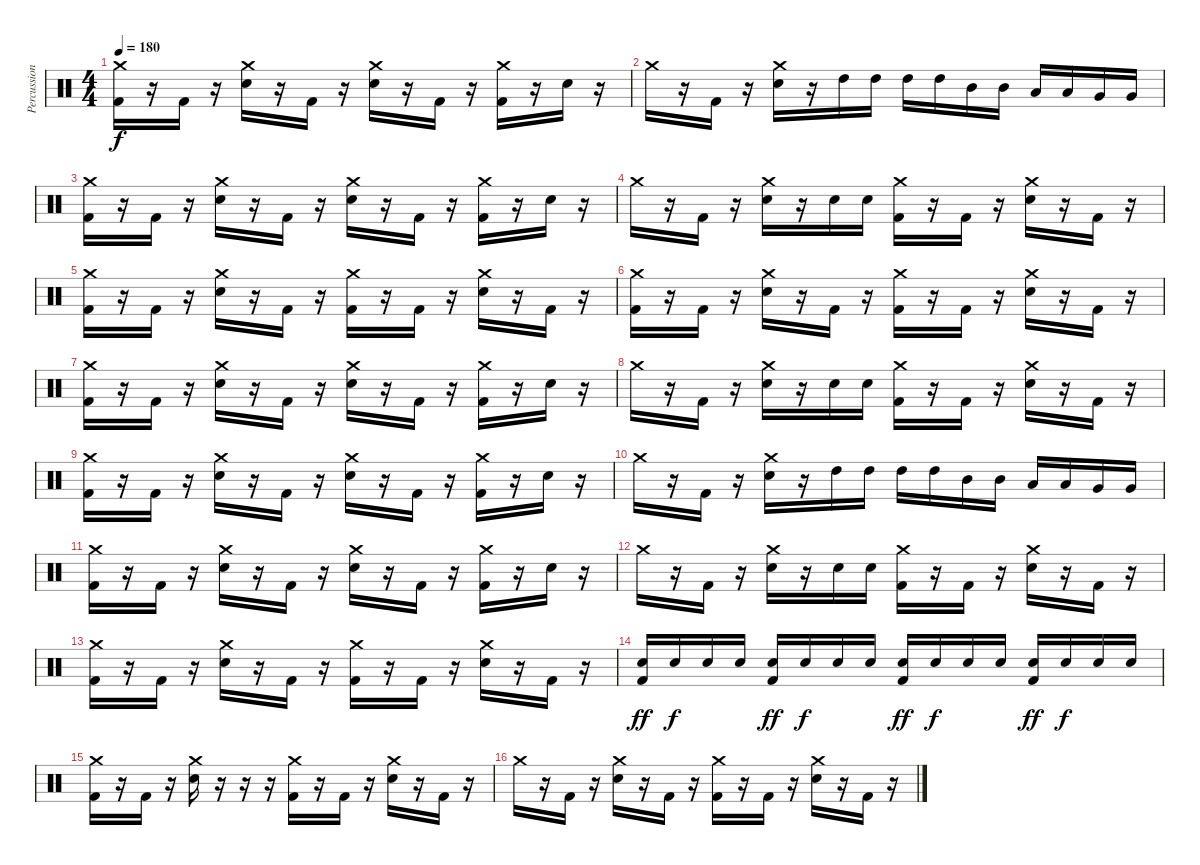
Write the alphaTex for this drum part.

\track ("Percussion" "Percussion") {instrument percussion}
\staff {score}
\articulation defaults
\ts (4 4)
\tempo 180
\clef neutral
\ks c
("Crash medium (hit)" "Kick (hit) 2").16{dy f} r.16 "Kick (hit) 2".16 r.16 ("Crash medium (hit)" "Snare (hit) 2").16 r.16 "Kick (hit) 2".16 r.16 ("Crash medium (hit)" "Snare (hit) 2").16 r.16 "Kick (hit) 2".16 r.16 ("Crash medium (hit)" "Kick (hit) 2").16 r.16 "Snare (hit) 2".16 r.16 |
"Crash medium (hit)".16 r.16 "Kick (hit) 2".16 r.16 ("Crash medium (hit)" "Snare (hit) 2").16 r.16 "High Tom (hit)".16 "High Tom (hit)".16 "High Tom (hit)".16 "High Tom (hit)".16 "Mid Tom (hit)".16 "Mid Tom (hit)".16 "Low Tom (hit)".16 "Low Tom (hit)".16 "Very Low Tom (hit)".16 "Very Low Tom (hit)".16 |
("Crash medium (hit)" "Kick (hit) 2").16 r.16 "Kick (hit) 2".16 r.16 ("Crash medium (hit)" "Snare (hit) 2").16 r.16 "Kick (hit) 2".16 r.16 ("Crash medium (hit)" "Snare (hit) 2").16 r.16 "Kick (hit) 2".16 r.16 ("Crash medium (hit)" "Kick (hit) 2").16 r.16 "Snare (hit) 2".16 r.16 |
"Crash medium (hit)".16 r.16 "Kick (hit) 2".16 r.16 ("Crash medium (hit)" "Snare (hit) 2").16 r.16 "Snare (hit) 2".16 "Snare (hit) 2".16 ("Crash medium (hit)" "Kick (hit) 2").16 r.16 "Kick (hit) 2".16 r.16 ("Crash medium (hit)" "Snare (hit) 2").16 r.16 "Kick (hit) 2".16 r.16 |
("Crash medium (hit)" "Kick (hit) 2").16 r.16 "Kick (hit) 2".16 r.16 ("Crash medium (hit)" "Snare (hit) 2").16 r.16 "Kick (hit) 2".16 r.16 ("Crash medium (hit)" "Kick (hit) 2").16 r.16 "Kick (hit) 2".16 r.16 ("Crash medium (hit)" "Snare (hit) 2").16 r.16 "Kick (hit) 2".16 r.16 |
("Crash medium (hit)" "Kick (hit) 2").16 r.16 "Kick (hit) 2".16 r.16 ("Crash medium (hit)" "Snare (hit) 2").16 r.16 "Kick (hit) 2".16 r.16 ("Crash medium (hit)" "Kick (hit) 2").16 r.16 "Kick (hit) 2".16 r.16 ("Crash medium (hit)" "Snare (hit) 2").16 r.16 "Kick (hit) 2".16 r.16 |
("Crash medium (hit)" "Kick (hit) 2").16 r.16 "Kick (hit) 2".16 r.16 ("Crash medium (hit)" "Snare (hit) 2").16 r.16 "Kick (hit) 2".16 r.16 ("Crash medium (hit)" "Snare (hit) 2").16 r.16 "Kick (hit) 2".16 r.16 ("Crash medium (hit)" "Kick (hit) 2").16 r.16 "Snare (hit) 2".16 r.16 |
"Crash medium (hit)".16 r.16 "Kick (hit) 2".16 r.16 ("Crash medium (hit)" "Snare (hit) 2").16 r.16 "Snare (hit) 2".16 "Snare (hit) 2".16 ("Crash medium (hit)" "Kick (hit) 2").16 r.16 "Kick (hit) 2".16 r.16 ("Crash medium (hit)" "Snare (hit) 2").16 r.16 "Kick (hit) 2".16 r.16 |
("Crash medium (hit)" "Kick (hit) 2").16 r.16 "Kick (hit) 2".16 r.16 ("Crash medium (hit)" "Snare (hit) 2").16 r.16 "Kick (hit) 2".16 r.16 ("Crash medium (hit)" "Snare (hit) 2").16 r.16 "Kick (hit) 2".16 r.16 ("Crash medium (hit)" "Kick (hit) 2").16 r.16 "Snare (hit) 2".16 r.16 |
"Crash medium (hit)".16 r.16 "Kick (hit) 2".16 r.16 ("Crash medium (hit)" "Snare (hit) 2").16 r.16 "High Tom (hit)".16 "High Tom (hit)".16 "High Tom (hit)".16 "High Tom (hit)".16 "Mid Tom (hit)".16 "Mid Tom (hit)".16 "Low Tom (hit)".16 "Low Tom (hit)".16 "Very Low Tom (hit)".16 "Very Low Tom (hit)".16 |
("Crash medium (hit)" "Kick (hit) 2").16 r.16 "Kick (hit) 2".16 r.16 ("Crash medium (hit)" "Snare (hit) 2").16 r.16 "Kick (hit) 2".16 r.16 ("Crash medium (hit)" "Snare (hit) 2").16 r.16 "Kick (hit) 2".16 r.16 ("Crash medium (hit)" "Kick (hit) 2").16 r.16 "Snare (hit) 2".16 r.16 |
"Crash medium (hit)".16 r.16 "Kick (hit) 2".16 r.16 ("Crash medium (hit)" "Snare (hit) 2").16 r.16 "Snare (hit) 2".16 "Snare (hit) 2".16 ("Crash medium (hit)" "Kick (hit) 2").16 r.16 "Kick (hit) 2".16 r.16 ("Crash medium (hit)" "Snare (hit) 2").16 r.16 "Kick (hit) 2".16 r.16 |
("Crash medium (hit)" "Kick (hit) 2").16 r.16 "Kick (hit) 2".16 r.16 ("Crash medium (hit)" "Snare (hit) 2").16 r.16 "Kick (hit) 2".16 r.16 ("Crash medium (hit)" "Kick (hit) 2").16 r.16 "Kick (hit) 2".16 r.16 ("Crash medium (hit)" "Snare (hit) 2").16 r.16 "Kick (hit) 2".16 r.16 |
("Snare (hit) 2" "Kick (hit) 2").16{dy ff} "Snare (hit) 2".16{dy f} "Snare (hit) 2".16 "Snare (hit) 2".16 ("Snare (hit) 2" "Kick (hit) 2").16{dy ff} "Snare (hit) 2".16{dy f} "Snare (hit) 2".16 "Snare (hit) 2".16 ("Snare (hit) 2" "Kick (hit) 2").16{dy ff} "Snare (hit) 2".16{dy f} "Snare (hit) 2".16 "Snare (hit) 2".16 ("Snare (hit) 2" "Kick (hit) 2").16{dy ff} "Snare (hit) 2".16{dy f} "Snare (hit) 2".16 "Snare (hit) 2".16 |
("Crash medium (hit)" "Kick (hit) 2").16 r.16 "Kick (hit) 2".16 r.16 ("Crash medium (hit)" "Snare (hit) 2").16 r.16 r.16 r.16 ("Crash medium (hit)" "Kick (hit) 2").16 r.16 "Kick (hit) 2".16 r.16 ("Crash medium (hit)" "Snare (hit) 2").16 r.16 "Kick (hit) 2".16 r.16 |
"Crash medium (hit)".16 r.16 "Kick (hit) 2".16 r.16 ("Crash medium (hit)" "Snare (hit) 2").16 r.16 "Kick (hit) 2".16 r.16 ("Crash medium (hit)" "Kick (hit) 2").16 r.16 "Kick (hit) 2".16 r.16 ("Crash medium (hit)" "Snare (hit) 2").16 r.16 "Kick (hit) 2".16 r.16
